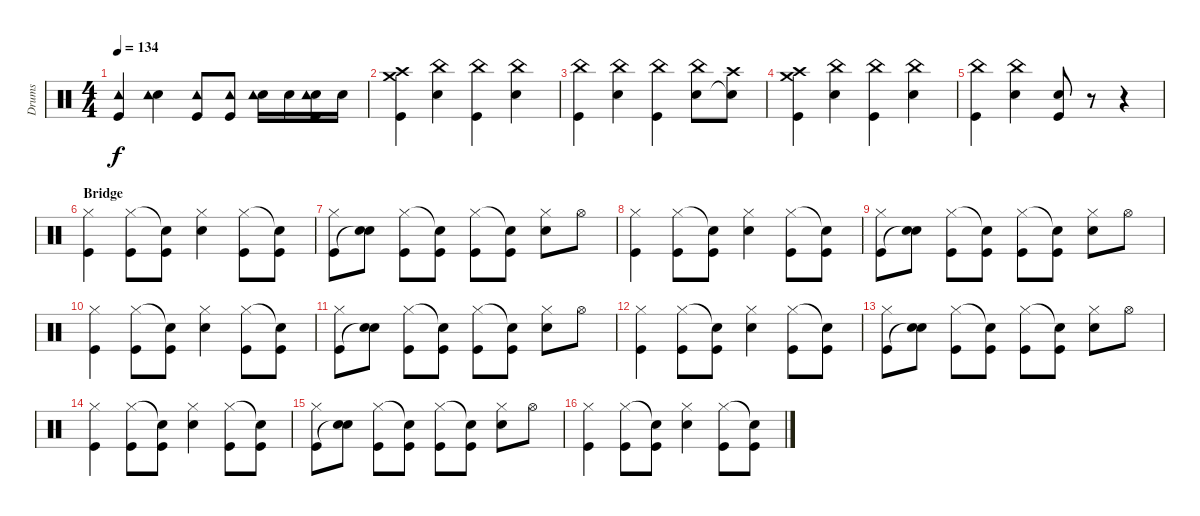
\track ("Drums" "Drums") {instrument percussion}
\staff {score}
\articulation defaults
\ts (4 4)
\tempo 134
\clef neutral
\ks c
("Tambourine (hit)" "Kick (hit)").4{dy f} ("Electric Snare (hit)" "Tambourine (hit)").4 ("Tambourine (hit)" "Kick (hit)").8 ("Tambourine (hit)" "Kick (hit)").8 ("Electric Snare (hit)" "Tambourine (hit)").16 "Electric Snare (hit)".16 ("Electric Snare (hit)" "Tambourine (hit)" "Kick (hit)").16 "Electric Snare (hit)".16 |
("Crash medium (hit)" "Crash high (hit)" "Kick (hit)").4 ("Electric Snare (hit)" "China (hit)").4 ("China (hit)" "Kick (hit)").4 ("Electric Snare (hit)" "China (hit)").4 |
("China (hit)" "Kick (hit)").4 ("Electric Snare (hit)" "China (hit)").4 ("China (hit)" "Kick (hit)").4 ("Electric Snare (hit)" "China (hit)").8 ("Snare (hit)"{t} "Crash high (hit)").8 |
("Crash medium (hit)" "Crash high (hit)" "Kick (hit)").4 ("Electric Snare (hit)" "China (hit)").4 ("China (hit)" "Kick (hit)").4 ("Electric Snare (hit)" "China (hit)").4 |
("China (hit)" "Kick (hit)").4 ("Electric Snare (hit)" "China (hit)").4 ("Electric Snare (hit)" "Kick (hit)").8 r.8 r.4 |
\section ("" "Bridge")
("Hi-Hat (closed)" "Kick (hit)").4 ("Hi-Hat (closed)" "Kick (hit)").8 ("Snare (hit)"{t} "Kick (hit)").8 ("Electric Snare (hit)" "Hi-Hat (closed)").4 ("Hi-Hat (closed)" "Kick (hit)").8 ("Snare (hit)"{t} "Kick (hit)").8 |
("Hi-Hat (closed)" "Kick (hit)").8 ("Electric Snare (hit)" "Snare (hit)"{t}).8 ("Hi-Hat (closed)" "Kick (hit)").8 ("Snare (hit)"{t} "Kick (hit)").8 ("Hi-Hat (closed)" "Kick (hit)").8 ("Snare (hit)"{t} "Kick (hit)").8 ("Electric Snare (hit)" "Hi-Hat (closed)").8 "Hi-Hat (open)".8 |
("Hi-Hat (closed)" "Kick (hit)").4 ("Hi-Hat (closed)" "Kick (hit)").8 ("Snare (hit)"{t} "Kick (hit)").8 ("Electric Snare (hit)" "Hi-Hat (closed)").4 ("Hi-Hat (closed)" "Kick (hit)").8 ("Snare (hit)"{t} "Kick (hit)").8 |
("Hi-Hat (closed)" "Kick (hit)").8 ("Electric Snare (hit)" "Snare (hit)"{t}).8 ("Hi-Hat (closed)" "Kick (hit)").8 ("Snare (hit)"{t} "Kick (hit)").8 ("Hi-Hat (closed)" "Kick (hit)").8 ("Snare (hit)"{t} "Kick (hit)").8 ("Electric Snare (hit)" "Hi-Hat (closed)").8 "Hi-Hat (open)".8 |
("Hi-Hat (closed)" "Kick (hit)").4 ("Hi-Hat (closed)" "Kick (hit)").8 ("Snare (hit)"{t} "Kick (hit)").8 ("Electric Snare (hit)" "Hi-Hat (closed)").4 ("Hi-Hat (closed)" "Kick (hit)").8 ("Snare (hit)"{t} "Kick (hit)").8 |
("Hi-Hat (closed)" "Kick (hit)").8 ("Electric Snare (hit)" "Snare (hit)"{t}).8 ("Hi-Hat (closed)" "Kick (hit)").8 ("Snare (hit)"{t} "Kick (hit)").8 ("Hi-Hat (closed)" "Kick (hit)").8 ("Snare (hit)"{t} "Kick (hit)").8 ("Electric Snare (hit)" "Hi-Hat (closed)").8 "Hi-Hat (open)".8 |
("Hi-Hat (closed)" "Kick (hit)").4 ("Hi-Hat (closed)" "Kick (hit)").8 ("Snare (hit)"{t} "Kick (hit)").8 ("Electric Snare (hit)" "Hi-Hat (closed)").4 ("Hi-Hat (closed)" "Kick (hit)").8 ("Snare (hit)"{t} "Kick (hit)").8 |
("Hi-Hat (closed)" "Kick (hit)").8 ("Electric Snare (hit)" "Snare (hit)"{t}).8 ("Hi-Hat (closed)" "Kick (hit)").8 ("Snare (hit)"{t} "Kick (hit)").8 ("Hi-Hat (closed)" "Kick (hit)").8 ("Snare (hit)"{t} "Kick (hit)").8 ("Electric Snare (hit)" "Hi-Hat (closed)").8 "Hi-Hat (open)".8 |
("Hi-Hat (closed)" "Kick (hit)").4 ("Hi-Hat (closed)" "Kick (hit)").8 ("Snare (hit)"{t} "Kick (hit)").8 ("Electric Snare (hit)" "Hi-Hat (closed)").4 ("Hi-Hat (closed)" "Kick (hit)").8 ("Snare (hit)"{t} "Kick (hit)").8 |
("Hi-Hat (closed)" "Kick (hit)").8 ("Electric Snare (hit)" "Snare (hit)"{t}).8 ("Hi-Hat (closed)" "Kick (hit)").8 ("Snare (hit)"{t} "Kick (hit)").8 ("Hi-Hat (closed)" "Kick (hit)").8 ("Snare (hit)"{t} "Kick (hit)").8 ("Electric Snare (hit)" "Hi-Hat (closed)").8 "Hi-Hat (open)".8 |
("Hi-Hat (closed)" "Kick (hit)").4 ("Hi-Hat (closed)" "Kick (hit)").8 ("Snare (hit)"{t} "Kick (hit)").8 ("Electric Snare (hit)" "Hi-Hat (closed)").4 ("Hi-Hat (closed)" "Kick (hit)").8 ("Snare (hit)"{t} "Kick (hit)").8
